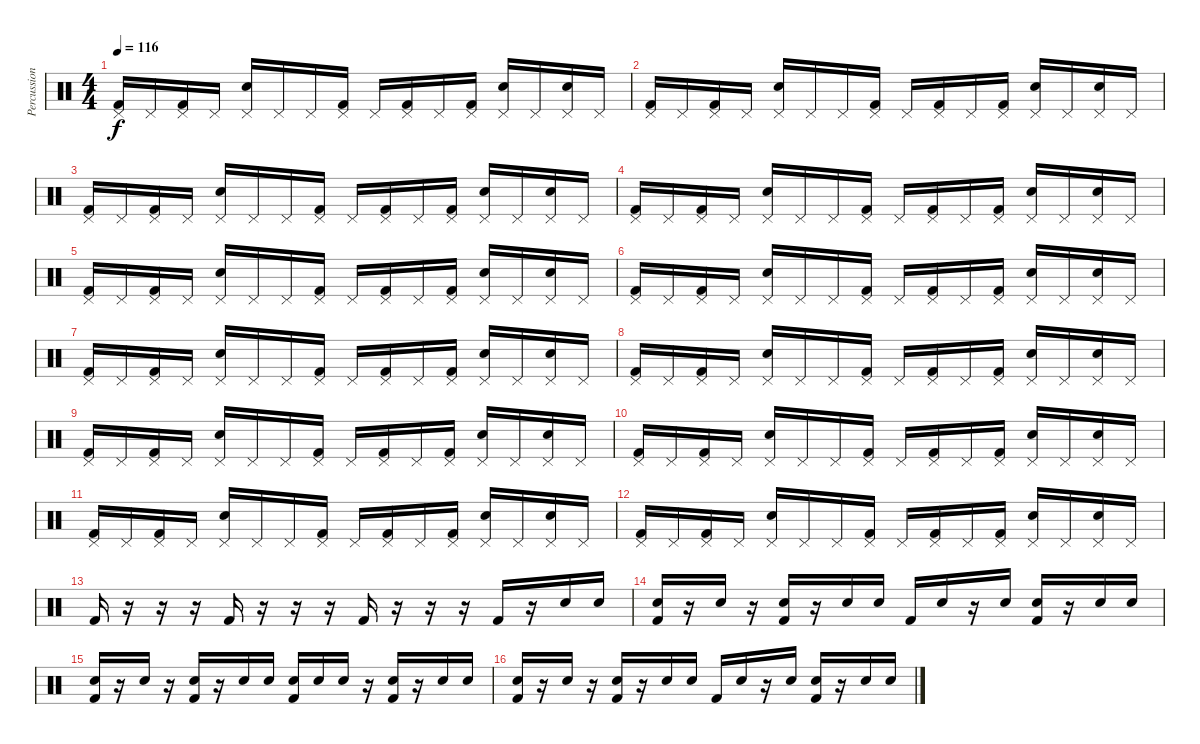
\track ("Percussions" "Percussion") {instrument percussion}
\staff {score}
\articulation defaults
\ts (4 4)
\tempo 116
\clef neutral
\ks c
("Pedal Hi-Hat (hit)" "Kick (hit) 2").16{dy f} "Pedal Hi-Hat (hit)".16 ("Pedal Hi-Hat (hit)" "Kick (hit) 2").16 "Pedal Hi-Hat (hit)".16 ("Pedal Hi-Hat (hit)" "Snare (hit) 2").16 "Pedal Hi-Hat (hit)".16 "Pedal Hi-Hat (hit)".16 ("Pedal Hi-Hat (hit)" "Kick (hit) 2").16 "Pedal Hi-Hat (hit)".16 ("Pedal Hi-Hat (hit)" "Kick (hit) 2").16 "Pedal Hi-Hat (hit)".16 ("Pedal Hi-Hat (hit)" "Kick (hit) 2").16 ("Pedal Hi-Hat (hit)" "Snare (hit) 2").16 "Pedal Hi-Hat (hit)".16 ("Pedal Hi-Hat (hit)" "Snare (hit) 2").16 "Pedal Hi-Hat (hit)".16 |
("Pedal Hi-Hat (hit)" "Kick (hit) 2").16 "Pedal Hi-Hat (hit)".16 ("Pedal Hi-Hat (hit)" "Kick (hit) 2").16 "Pedal Hi-Hat (hit)".16 ("Pedal Hi-Hat (hit)" "Snare (hit) 2").16 "Pedal Hi-Hat (hit)".16 "Pedal Hi-Hat (hit)".16 ("Pedal Hi-Hat (hit)" "Kick (hit) 2").16 "Pedal Hi-Hat (hit)".16 ("Pedal Hi-Hat (hit)" "Kick (hit) 2").16 "Pedal Hi-Hat (hit)".16 ("Pedal Hi-Hat (hit)" "Kick (hit) 2").16 ("Pedal Hi-Hat (hit)" "Snare (hit) 2").16 "Pedal Hi-Hat (hit)".16 ("Pedal Hi-Hat (hit)" "Snare (hit) 2").16 "Pedal Hi-Hat (hit)".16 |
("Pedal Hi-Hat (hit)" "Kick (hit) 2").16 "Pedal Hi-Hat (hit)".16 ("Pedal Hi-Hat (hit)" "Kick (hit) 2").16 "Pedal Hi-Hat (hit)".16 ("Pedal Hi-Hat (hit)" "Snare (hit) 2").16 "Pedal Hi-Hat (hit)".16 "Pedal Hi-Hat (hit)".16 ("Pedal Hi-Hat (hit)" "Kick (hit) 2").16 "Pedal Hi-Hat (hit)".16 ("Pedal Hi-Hat (hit)" "Kick (hit) 2").16 "Pedal Hi-Hat (hit)".16 ("Pedal Hi-Hat (hit)" "Kick (hit) 2").16 ("Pedal Hi-Hat (hit)" "Snare (hit) 2").16 "Pedal Hi-Hat (hit)".16 ("Pedal Hi-Hat (hit)" "Snare (hit) 2").16 "Pedal Hi-Hat (hit)".16 |
("Pedal Hi-Hat (hit)" "Kick (hit) 2").16 "Pedal Hi-Hat (hit)".16 ("Pedal Hi-Hat (hit)" "Kick (hit) 2").16 "Pedal Hi-Hat (hit)".16 ("Pedal Hi-Hat (hit)" "Snare (hit) 2").16 "Pedal Hi-Hat (hit)".16 "Pedal Hi-Hat (hit)".16 ("Pedal Hi-Hat (hit)" "Kick (hit) 2").16 "Pedal Hi-Hat (hit)".16 ("Pedal Hi-Hat (hit)" "Kick (hit) 2").16 "Pedal Hi-Hat (hit)".16 ("Pedal Hi-Hat (hit)" "Kick (hit) 2").16 ("Pedal Hi-Hat (hit)" "Snare (hit) 2").16 "Pedal Hi-Hat (hit)".16 ("Pedal Hi-Hat (hit)" "Snare (hit) 2").16 "Pedal Hi-Hat (hit)".16 |
("Pedal Hi-Hat (hit)" "Kick (hit) 2").16 "Pedal Hi-Hat (hit)".16 ("Pedal Hi-Hat (hit)" "Kick (hit) 2").16 "Pedal Hi-Hat (hit)".16 ("Pedal Hi-Hat (hit)" "Snare (hit) 2").16 "Pedal Hi-Hat (hit)".16 "Pedal Hi-Hat (hit)".16 ("Pedal Hi-Hat (hit)" "Kick (hit) 2").16 "Pedal Hi-Hat (hit)".16 ("Pedal Hi-Hat (hit)" "Kick (hit) 2").16 "Pedal Hi-Hat (hit)".16 ("Pedal Hi-Hat (hit)" "Kick (hit) 2").16 ("Pedal Hi-Hat (hit)" "Snare (hit) 2").16 "Pedal Hi-Hat (hit)".16 ("Pedal Hi-Hat (hit)" "Snare (hit) 2").16 "Pedal Hi-Hat (hit)".16 |
("Pedal Hi-Hat (hit)" "Kick (hit) 2").16 "Pedal Hi-Hat (hit)".16 ("Pedal Hi-Hat (hit)" "Kick (hit) 2").16 "Pedal Hi-Hat (hit)".16 ("Pedal Hi-Hat (hit)" "Snare (hit) 2").16 "Pedal Hi-Hat (hit)".16 "Pedal Hi-Hat (hit)".16 ("Pedal Hi-Hat (hit)" "Kick (hit) 2").16 "Pedal Hi-Hat (hit)".16 ("Pedal Hi-Hat (hit)" "Kick (hit) 2").16 "Pedal Hi-Hat (hit)".16 ("Pedal Hi-Hat (hit)" "Kick (hit) 2").16 ("Pedal Hi-Hat (hit)" "Snare (hit) 2").16 "Pedal Hi-Hat (hit)".16 ("Pedal Hi-Hat (hit)" "Snare (hit) 2").16 "Pedal Hi-Hat (hit)".16 |
("Pedal Hi-Hat (hit)" "Kick (hit) 2").16 "Pedal Hi-Hat (hit)".16 ("Pedal Hi-Hat (hit)" "Kick (hit) 2").16 "Pedal Hi-Hat (hit)".16 ("Pedal Hi-Hat (hit)" "Snare (hit) 2").16 "Pedal Hi-Hat (hit)".16 "Pedal Hi-Hat (hit)".16 ("Pedal Hi-Hat (hit)" "Kick (hit) 2").16 "Pedal Hi-Hat (hit)".16 ("Pedal Hi-Hat (hit)" "Kick (hit) 2").16 "Pedal Hi-Hat (hit)".16 ("Pedal Hi-Hat (hit)" "Kick (hit) 2").16 ("Pedal Hi-Hat (hit)" "Snare (hit) 2").16 "Pedal Hi-Hat (hit)".16 ("Pedal Hi-Hat (hit)" "Snare (hit) 2").16 "Pedal Hi-Hat (hit)".16 |
("Pedal Hi-Hat (hit)" "Kick (hit) 2").16 "Pedal Hi-Hat (hit)".16 ("Pedal Hi-Hat (hit)" "Kick (hit) 2").16 "Pedal Hi-Hat (hit)".16 ("Pedal Hi-Hat (hit)" "Snare (hit) 2").16 "Pedal Hi-Hat (hit)".16 "Pedal Hi-Hat (hit)".16 ("Pedal Hi-Hat (hit)" "Kick (hit) 2").16 "Pedal Hi-Hat (hit)".16 ("Pedal Hi-Hat (hit)" "Kick (hit) 2").16 "Pedal Hi-Hat (hit)".16 ("Pedal Hi-Hat (hit)" "Kick (hit) 2").16 ("Pedal Hi-Hat (hit)" "Snare (hit) 2").16 "Pedal Hi-Hat (hit)".16 ("Pedal Hi-Hat (hit)" "Snare (hit) 2").16 "Pedal Hi-Hat (hit)".16 |
("Pedal Hi-Hat (hit)" "Kick (hit) 2").16 "Pedal Hi-Hat (hit)".16 ("Pedal Hi-Hat (hit)" "Kick (hit) 2").16 "Pedal Hi-Hat (hit)".16 ("Pedal Hi-Hat (hit)" "Snare (hit) 2").16 "Pedal Hi-Hat (hit)".16 "Pedal Hi-Hat (hit)".16 ("Pedal Hi-Hat (hit)" "Kick (hit) 2").16 "Pedal Hi-Hat (hit)".16 ("Pedal Hi-Hat (hit)" "Kick (hit) 2").16 "Pedal Hi-Hat (hit)".16 ("Pedal Hi-Hat (hit)" "Kick (hit) 2").16 ("Pedal Hi-Hat (hit)" "Snare (hit) 2").16 "Pedal Hi-Hat (hit)".16 ("Pedal Hi-Hat (hit)" "Snare (hit) 2").16 "Pedal Hi-Hat (hit)".16 |
("Pedal Hi-Hat (hit)" "Kick (hit) 2").16 "Pedal Hi-Hat (hit)".16 ("Pedal Hi-Hat (hit)" "Kick (hit) 2").16 "Pedal Hi-Hat (hit)".16 ("Pedal Hi-Hat (hit)" "Snare (hit) 2").16 "Pedal Hi-Hat (hit)".16 "Pedal Hi-Hat (hit)".16 ("Pedal Hi-Hat (hit)" "Kick (hit) 2").16 "Pedal Hi-Hat (hit)".16 ("Pedal Hi-Hat (hit)" "Kick (hit) 2").16 "Pedal Hi-Hat (hit)".16 ("Pedal Hi-Hat (hit)" "Kick (hit) 2").16 ("Pedal Hi-Hat (hit)" "Snare (hit) 2").16 "Pedal Hi-Hat (hit)".16 ("Pedal Hi-Hat (hit)" "Snare (hit) 2").16 "Pedal Hi-Hat (hit)".16 |
("Pedal Hi-Hat (hit)" "Kick (hit) 2").16 "Pedal Hi-Hat (hit)".16 ("Pedal Hi-Hat (hit)" "Kick (hit) 2").16 "Pedal Hi-Hat (hit)".16 ("Pedal Hi-Hat (hit)" "Snare (hit) 2").16 "Pedal Hi-Hat (hit)".16 "Pedal Hi-Hat (hit)".16 ("Pedal Hi-Hat (hit)" "Kick (hit) 2").16 "Pedal Hi-Hat (hit)".16 ("Pedal Hi-Hat (hit)" "Kick (hit) 2").16 "Pedal Hi-Hat (hit)".16 ("Pedal Hi-Hat (hit)" "Kick (hit) 2").16 ("Pedal Hi-Hat (hit)" "Snare (hit) 2").16 "Pedal Hi-Hat (hit)".16 ("Pedal Hi-Hat (hit)" "Snare (hit) 2").16 "Pedal Hi-Hat (hit)".16 |
("Pedal Hi-Hat (hit)" "Kick (hit) 2").16 "Pedal Hi-Hat (hit)".16 ("Pedal Hi-Hat (hit)" "Kick (hit) 2").16 "Pedal Hi-Hat (hit)".16 ("Pedal Hi-Hat (hit)" "Snare (hit) 2").16 "Pedal Hi-Hat (hit)".16 "Pedal Hi-Hat (hit)".16 ("Pedal Hi-Hat (hit)" "Kick (hit) 2").16 "Pedal Hi-Hat (hit)".16 ("Pedal Hi-Hat (hit)" "Kick (hit) 2").16 "Pedal Hi-Hat (hit)".16 ("Pedal Hi-Hat (hit)" "Kick (hit) 2").16 ("Pedal Hi-Hat (hit)" "Snare (hit) 2").16 "Pedal Hi-Hat (hit)".16 ("Pedal Hi-Hat (hit)" "Snare (hit) 2").16 "Pedal Hi-Hat (hit)".16 |
"Kick (hit) 2".16 r.16 r.16 r.16 "Kick (hit) 2".16 r.16 r.16 r.16 "Kick (hit) 2".16 r.16 r.16 r.16 "Kick (hit) 2".16 r.16 "Snare (hit) 2".16 "Snare (hit) 2".16 |
("Snare (hit) 2" "Kick (hit) 2").16 r.16 "Snare (hit) 2".16 r.16 ("Snare (hit) 2" "Kick (hit) 2").16 r.16 "Snare (hit) 2".16 "Snare (hit) 2".16 "Kick (hit) 2".16 "Snare (hit) 2".16 r.16 "Snare (hit) 2".16 ("Snare (hit) 2" "Kick (hit) 2").16 r.16 "Snare (hit) 2".16 "Snare (hit) 2".16 |
("Snare (hit) 2" "Kick (hit) 2").16 r.16 "Snare (hit) 2".16 r.16 ("Snare (hit) 2" "Kick (hit) 2").16 r.16 "Snare (hit) 2".16 "Snare (hit) 2".16 ("Snare (hit) 2" "Kick (hit) 2").16 "Snare (hit) 2".16 "Snare (hit) 2".16 r.16 ("Snare (hit) 2" "Kick (hit) 2").16 r.16 "Snare (hit) 2".16 "Snare (hit) 2".16 |
("Snare (hit) 2" "Kick (hit) 2").16 r.16 "Snare (hit) 2".16 r.16 ("Snare (hit) 2" "Kick (hit) 2").16 r.16 "Snare (hit) 2".16 "Snare (hit) 2".16 "Kick (hit) 2".16 "Snare (hit) 2".16 r.16 "Snare (hit) 2".16 ("Snare (hit) 2" "Kick (hit) 2").16 r.16 "Snare (hit) 2".16 "Snare (hit) 2".16
